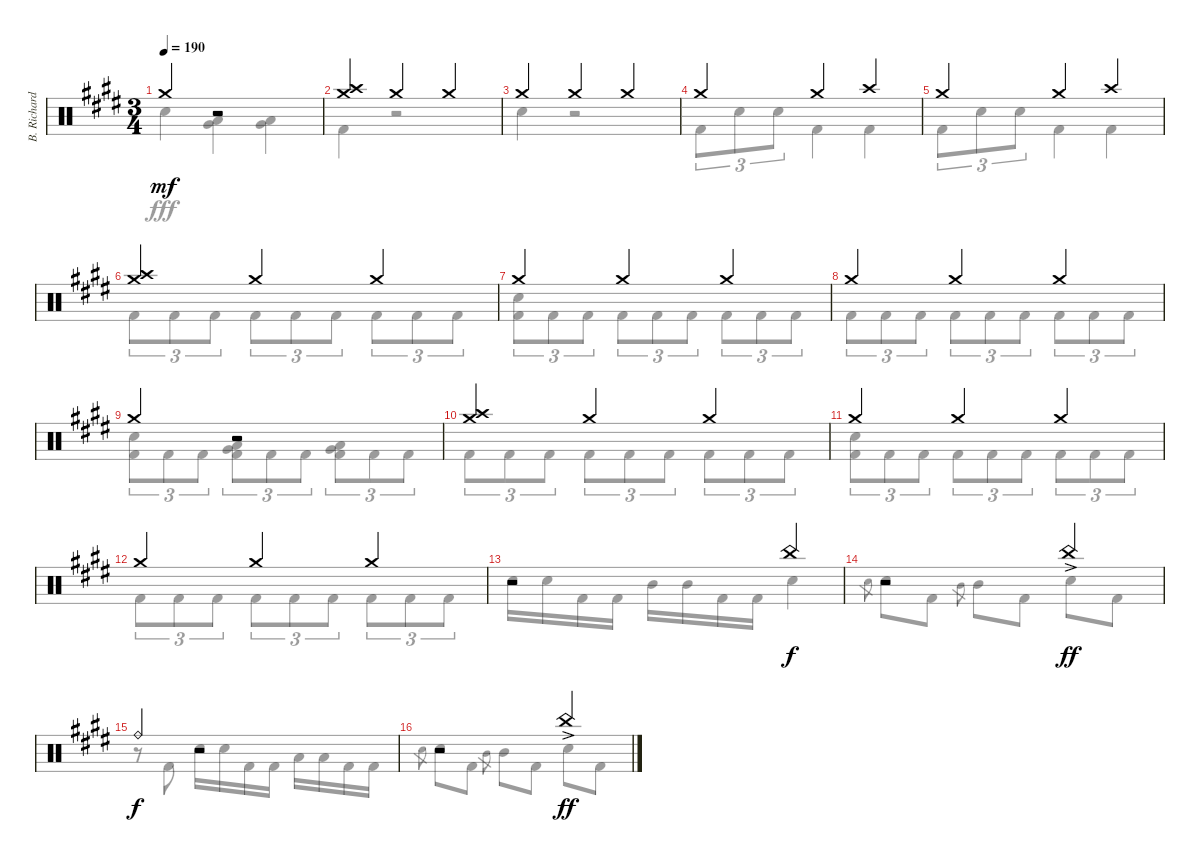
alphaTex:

\track ("B. Richardson Drums" "B. Richard") {instrument percussion}
\staff {score}
\articulation defaults
\voice
\ts (3 4)
\tempo 190
\clef neutral
\ks c#minor "Crash medium (hit)".4{dy mf}
r.2 |
("Crash medium (hit)" "Crash high (hit)").4 "Crash medium (hit)".4 "Crash medium (hit)".4 |
"Crash medium (hit)".4 "Crash medium (hit)".4 "Crash medium (hit)".4 |
"Crash medium (hit)".4 "Crash medium (hit)".4 "Crash high (hit)".4 |
"Crash medium (hit)".4 "Crash medium (hit)".4 "Crash high (hit)".4 |
("Crash medium (hit)" "Crash high (hit)").4 "Crash medium (hit)".4 "Crash medium (hit)".4 |
"Crash medium (hit)".4 "Crash medium (hit)".4 "Crash medium (hit)".4 |
"Crash medium (hit)".4 "Crash medium (hit)".4 "Crash medium (hit)".4 |
"Crash medium (hit)".4 r.2 |
("Crash medium (hit)" "Crash high (hit)").4 "Crash medium (hit)".4 "Crash medium (hit)".4 |
"Crash medium (hit)".4 "Crash medium (hit)".4 "Crash medium (hit)".4 |
"Crash medium (hit)".4 "Crash medium (hit)".4 "Crash medium (hit)".4 |
r.2 "China (hit)".4{dy f} |
r.2 "China (hit)"{ac}.4{dy ff} |
"Ride (bell)".4{dy f} r.2 |
r.2 "China (hit)"{ac}.4{dy ff}
\voice
\clef neutral
\ottava regular
\simile none
\ks c#minor "Electric Snare (hit)".4{dy fff}
("Low Tom (hit)" "Very Low Tom (hit)").4 ("Low Tom (hit)" "Very Low Tom (hit)").4 |
"Kick (hit) 2".4 r.2 |
"Electric Snare (hit)".4 r.2 |
"Kick (hit) 2".8{tu (3 2)} "Electric Snare (hit)".8{tu (3 2)} "Electric Snare (hit)".8{tu (3 2)} "Kick (hit) 2".4 "Kick (hit) 2".4 |
"Kick (hit) 2".8{tu (3 2)} "Electric Snare (hit)".8{tu (3 2)} "Electric Snare (hit)".8{tu (3 2)} "Kick (hit) 2".4 "Kick (hit) 2".4 |
"Kick (hit) 2".8{tu (3 2)} "Kick (hit) 2".8{tu (3 2)} "Kick (hit) 2".8{tu (3 2)} "Kick (hit) 2".8{tu (3 2)} "Kick (hit) 2".8{tu (3 2)} "Kick (hit) 2".8{tu (3 2)} "Kick (hit) 2".8{tu (3 2)} "Kick (hit) 2".8{tu (3 2)} "Kick (hit) 2".8{tu (3 2)} |
("Electric Snare (hit)" "Kick (hit) 2").8{tu (3 2)} "Kick (hit) 2".8{tu (3 2)} "Kick (hit) 2".8{tu (3 2)} "Kick (hit) 2".8{tu (3 2)} "Kick (hit) 2".8{tu (3 2)} "Kick (hit) 2".8{tu (3 2)} "Kick (hit) 2".8{tu (3 2)} "Kick (hit) 2".8{tu (3 2)} "Kick (hit) 2".8{tu (3 2)} |
"Kick (hit) 2".8{tu (3 2)} "Kick (hit) 2".8{tu (3 2)} "Kick (hit) 2".8{tu (3 2)} "Kick (hit) 2".8{tu (3 2)} "Kick (hit) 2".8{tu (3 2)} "Kick (hit) 2".8{tu (3 2)} "Kick (hit) 2".8{tu (3 2)} "Kick (hit) 2".8{tu (3 2)} "Kick (hit) 2".8{tu (3 2)} |
("Electric Snare (hit)" "Kick (hit) 2").8{tu (3 2)} "Kick (hit) 2".8{tu (3 2)} "Kick (hit) 2".8{tu (3 2)} ("Low Tom (hit)" "Very Low Tom (hit)" "Kick (hit) 2").8{tu (3 2)} "Kick (hit) 2".8{tu (3 2)} "Kick (hit) 2".8{tu (3 2)} ("Low Tom (hit)" "Very Low Tom (hit)" "Kick (hit) 2").8{tu (3 2)} "Kick (hit) 2".8{tu (3 2)} "Kick (hit) 2".8{tu (3 2)} |
"Kick (hit) 2".8{tu (3 2)} "Kick (hit) 2".8{tu (3 2)} "Kick (hit) 2".8{tu (3 2)} "Kick (hit) 2".8{tu (3 2)} "Kick (hit) 2".8{tu (3 2)} "Kick (hit) 2".8{tu (3 2)} "Kick (hit) 2".8{tu (3 2)} "Kick (hit) 2".8{tu (3 2)} "Kick (hit) 2".8{tu (3 2)} |
("Electric Snare (hit)" "Kick (hit) 2").8{tu (3 2)} "Kick (hit) 2".8{tu (3 2)} "Kick (hit) 2".8{tu (3 2)} "Kick (hit) 2".8{tu (3 2)} "Kick (hit) 2".8{tu (3 2)} "Kick (hit) 2".8{tu (3 2)} "Kick (hit) 2".8{tu (3 2)} "Kick (hit) 2".8{tu (3 2)} "Kick (hit) 2".8{tu (3 2)} |
"Kick (hit) 2".8{tu (3 2)} "Kick (hit) 2".8{tu (3 2)} "Kick (hit) 2".8{tu (3 2)} "Kick (hit) 2".8{tu (3 2)} "Kick (hit) 2".8{tu (3 2)} "Kick (hit) 2".8{tu (3 2)} "Kick (hit) 2".8{tu (3 2)} "Kick (hit) 2".8{tu (3 2)} "Kick (hit) 2".8{tu (3 2)} |
"Electric Snare (hit)".16 "Electric Snare (hit)".16 "Kick (hit) 2".16 "Kick (hit) 2".16 "Mid Tom (hit)".16 "Mid Tom (hit)".16 "Kick (hit) 2".16 "Kick (hit) 2".16 "Electric Snare (hit)".4 |
"Electric Snare (hit)".8{gr} "Electric Snare (hit)".8 "Kick (hit) 2".8 "Mid Tom (hit)".8{gr} "Mid Tom (hit)".8 "Kick (hit) 2".8 "Electric Snare (hit)".8 "Kick (hit) 2".8 |
r.8 "Kick (hit) 2".8 "Electric Snare (hit)".16 "Electric Snare (hit)".16 "Kick (hit) 2".16 "Kick (hit) 2".16 "Low Tom (hit)".16 "Low Tom (hit)".16 "Kick (hit) 2".16 "Kick (hit) 2".16 |
"Electric Snare (hit)".8{gr} "Electric Snare (hit)".8 "Kick (hit) 2".8 "Mid Tom (hit)".8{gr} "Mid Tom (hit)".8 "Kick (hit) 2".8 "Electric Snare (hit)".8 "Kick (hit) 2".8
